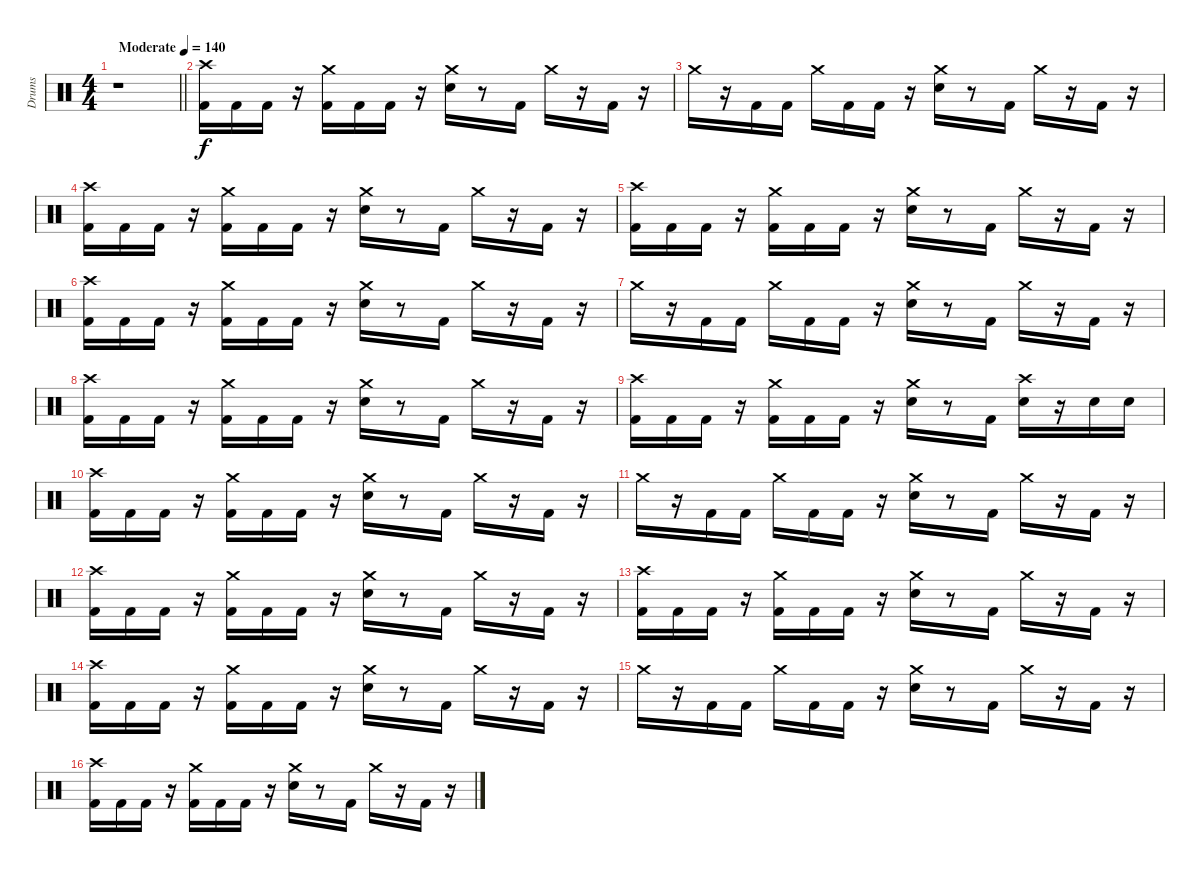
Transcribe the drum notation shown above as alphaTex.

\track ("Drums" "Drums") {instrument percussion}
\staff {score}
\articulation defaults
\ts (4 4)
\tempo (140 "Moderate")
\clef neutral
\barLineRight lightlight
\ks c
r.1{dy f} |
\section ("" " ")
("Kick (hit) 2" "Crash high (hit)").16 "Kick (hit) 2".16 "Kick (hit) 2".16 r.16 ("Kick (hit) 2" "Crash medium (hit)").16 "Kick (hit) 2".16 "Kick (hit) 2".16 r.16 ("Snare (hit) 2" "Crash medium (hit)").16 r.8 "Kick (hit) 2".16 "Crash medium (hit)".16 r.16 "Kick (hit) 2".16 r.16 |
"Crash medium (hit)".16 r.16 "Kick (hit) 2".16 "Kick (hit) 2".16 "Crash medium (hit)".16 "Kick (hit) 2".16 "Kick (hit) 2".16 r.16 ("Snare (hit) 2" "Crash medium (hit)").16 r.8 "Kick (hit) 2".16 "Crash medium (hit)".16 r.16 "Kick (hit) 2".16 r.16 |
("Kick (hit) 2" "Crash high (hit)").16 "Kick (hit) 2".16 "Kick (hit) 2".16 r.16 ("Kick (hit) 2" "Crash medium (hit)").16 "Kick (hit) 2".16 "Kick (hit) 2".16 r.16 ("Snare (hit) 2" "Crash medium (hit)").16 r.8 "Kick (hit) 2".16 "Crash medium (hit)".16 r.16 "Kick (hit) 2".16 r.16 |
("Kick (hit) 2" "Crash high (hit)").16 "Kick (hit) 2".16 "Kick (hit) 2".16 r.16 ("Kick (hit) 2" "Crash medium (hit)").16 "Kick (hit) 2".16 "Kick (hit) 2".16 r.16 ("Snare (hit) 2" "Crash medium (hit)").16 r.8 "Kick (hit) 2".16 "Crash medium (hit)".16 r.16 "Kick (hit) 2".16 r.16 |
("Kick (hit) 2" "Crash high (hit)").16 "Kick (hit) 2".16 "Kick (hit) 2".16 r.16 ("Kick (hit) 2" "Crash medium (hit)").16 "Kick (hit) 2".16 "Kick (hit) 2".16 r.16 ("Snare (hit) 2" "Crash medium (hit)").16 r.8 "Kick (hit) 2".16 "Crash medium (hit)".16 r.16 "Kick (hit) 2".16 r.16 |
"Crash medium (hit)".16 r.16 "Kick (hit) 2".16 "Kick (hit) 2".16 "Crash medium (hit)".16 "Kick (hit) 2".16 "Kick (hit) 2".16 r.16 ("Snare (hit) 2" "Crash medium (hit)").16 r.8 "Kick (hit) 2".16 "Crash medium (hit)".16 r.16 "Kick (hit) 2".16 r.16 |
("Kick (hit) 2" "Crash high (hit)").16 "Kick (hit) 2".16 "Kick (hit) 2".16 r.16 ("Kick (hit) 2" "Crash medium (hit)").16 "Kick (hit) 2".16 "Kick (hit) 2".16 r.16 ("Snare (hit) 2" "Crash medium (hit)").16 r.8 "Kick (hit) 2".16 "Crash medium (hit)".16 r.16 "Kick (hit) 2".16 r.16 |
("Kick (hit) 2" "Crash high (hit)").16 "Kick (hit) 2".16 "Kick (hit) 2".16 r.16 ("Kick (hit) 2" "Crash medium (hit)").16 "Kick (hit) 2".16 "Kick (hit) 2".16 r.16 ("Snare (hit) 2" "Crash medium (hit)").16 r.8 "Kick (hit) 2".16 ("Snare (hit) 2" "Crash high (hit)").16 r.16 "Snare (hit) 2".16 "Snare (hit) 2".16 |
("Kick (hit) 2" "Crash high (hit)").16 "Kick (hit) 2".16 "Kick (hit) 2".16 r.16 ("Kick (hit) 2" "Crash medium (hit)").16 "Kick (hit) 2".16 "Kick (hit) 2".16 r.16 ("Snare (hit) 2" "Crash medium (hit)").16 r.8 "Kick (hit) 2".16 "Crash medium (hit)".16 r.16 "Kick (hit) 2".16 r.16 |
"Crash medium (hit)".16 r.16 "Kick (hit) 2".16 "Kick (hit) 2".16 "Crash medium (hit)".16 "Kick (hit) 2".16 "Kick (hit) 2".16 r.16 ("Snare (hit) 2" "Crash medium (hit)").16 r.8 "Kick (hit) 2".16 "Crash medium (hit)".16 r.16 "Kick (hit) 2".16 r.16 |
("Kick (hit) 2" "Crash high (hit)").16 "Kick (hit) 2".16 "Kick (hit) 2".16 r.16 ("Kick (hit) 2" "Crash medium (hit)").16 "Kick (hit) 2".16 "Kick (hit) 2".16 r.16 ("Snare (hit) 2" "Crash medium (hit)").16 r.8 "Kick (hit) 2".16 "Crash medium (hit)".16 r.16 "Kick (hit) 2".16 r.16 |
("Kick (hit) 2" "Crash high (hit)").16 "Kick (hit) 2".16 "Kick (hit) 2".16 r.16 ("Kick (hit) 2" "Crash medium (hit)").16 "Kick (hit) 2".16 "Kick (hit) 2".16 r.16 ("Snare (hit) 2" "Crash medium (hit)").16 r.8 "Kick (hit) 2".16 "Crash medium (hit)".16 r.16 "Kick (hit) 2".16 r.16 |
("Kick (hit) 2" "Crash high (hit)").16 "Kick (hit) 2".16 "Kick (hit) 2".16 r.16 ("Kick (hit) 2" "Crash medium (hit)").16 "Kick (hit) 2".16 "Kick (hit) 2".16 r.16 ("Snare (hit) 2" "Crash medium (hit)").16 r.8 "Kick (hit) 2".16 "Crash medium (hit)".16 r.16 "Kick (hit) 2".16 r.16 |
"Crash medium (hit)".16 r.16 "Kick (hit) 2".16 "Kick (hit) 2".16 "Crash medium (hit)".16 "Kick (hit) 2".16 "Kick (hit) 2".16 r.16 ("Snare (hit) 2" "Crash medium (hit)").16 r.8 "Kick (hit) 2".16 "Crash medium (hit)".16 r.16 "Kick (hit) 2".16 r.16 |
("Kick (hit) 2" "Crash high (hit)").16 "Kick (hit) 2".16 "Kick (hit) 2".16 r.16 ("Kick (hit) 2" "Crash medium (hit)").16 "Kick (hit) 2".16 "Kick (hit) 2".16 r.16 ("Snare (hit) 2" "Crash medium (hit)").16 r.8 "Kick (hit) 2".16 "Crash medium (hit)".16 r.16 "Kick (hit) 2".16 r.16
